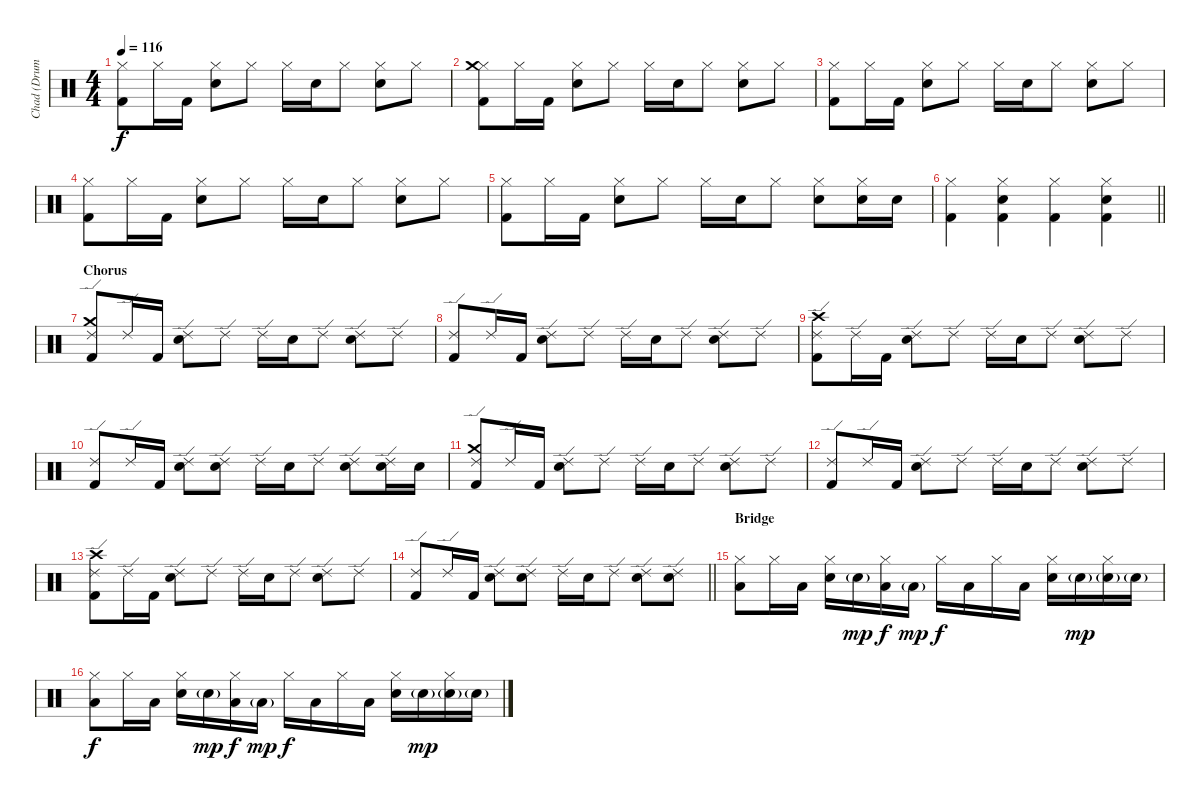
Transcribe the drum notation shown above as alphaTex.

\track ("Chad (Drums)" "Chad (Drum") {instrument percussion}
\staff {score}
\articulation defaults
\ts (4 4)
\tempo 116
\clef neutral
\ks c
("Hi-Hat (closed)" "Kick (hit) 2").8{dy f} "Hi-Hat (closed)".16 "Kick (hit) 2".16 ("Hi-Hat (closed)" "Snare (hit) 2").8 "Hi-Hat (closed)".8 "Hi-Hat (closed)".16 "Snare (hit) 2".16 "Hi-Hat (closed)".8 ("Hi-Hat (closed)" "Snare (hit) 2").8 "Hi-Hat (closed)".8 |
("Hi-Hat (closed)" "Crash medium (hit)" "Kick (hit) 2").8 "Hi-Hat (closed)".16 "Kick (hit) 2".16 ("Hi-Hat (closed)" "Snare (hit) 2").8 "Hi-Hat (closed)".8 "Hi-Hat (closed)".16 "Snare (hit) 2".16 "Hi-Hat (closed)".8 ("Hi-Hat (closed)" "Snare (hit) 2").8 "Hi-Hat (closed)".8 |
("Hi-Hat (closed)" "Kick (hit) 2").8 "Hi-Hat (closed)".16 "Kick (hit) 2".16 ("Hi-Hat (closed)" "Snare (hit) 2").8 "Hi-Hat (closed)".8 "Hi-Hat (closed)".16 "Snare (hit) 2".16 "Hi-Hat (closed)".8 ("Hi-Hat (closed)" "Snare (hit) 2").8 "Hi-Hat (closed)".8 |
("Hi-Hat (closed)" "Kick (hit) 2").8 "Hi-Hat (closed)".16 "Kick (hit) 2".16 ("Hi-Hat (closed)" "Snare (hit) 2").8 "Hi-Hat (closed)".8 "Hi-Hat (closed)".16 "Snare (hit) 2".16 "Hi-Hat (closed)".8 ("Hi-Hat (closed)" "Snare (hit) 2").8 "Hi-Hat (closed)".8 |
("Hi-Hat (closed)" "Kick (hit) 2").8 "Hi-Hat (closed)".16 "Kick (hit) 2".16 ("Hi-Hat (closed)" "Snare (hit) 2").8 "Hi-Hat (closed)".8 "Hi-Hat (closed)".16 "Snare (hit) 2".16 "Hi-Hat (closed)".8 ("Hi-Hat (closed)" "Snare (hit) 2").8 ("Hi-Hat (closed)" "Snare (hit) 2").16 "Snare (hit) 2".16 |
\barLineRight lightlight
("Hi-Hat (closed)" "Kick (hit) 2").4 ("Hi-Hat (closed)" "Snare (hit) 2" "Kick (hit) 2").4 ("Hi-Hat (closed)" "Kick (hit) 2").4 ("Hi-Hat (closed)" "Snare (hit) 2" "Kick (hit) 2").4 |
\section ("" "Chorus")
("Ride (edge) 2" "Crash medium (hit)" "Kick (hit) 2").8 "Ride (edge) 2".16 "Kick (hit) 2".16 ("Ride (edge) 2" "Snare (hit) 2").8 "Ride (edge) 2".8 "Ride (edge) 2".16 "Snare (hit) 2".16 "Ride (edge) 2".8 ("Ride (edge) 2" "Snare (hit) 2").8 "Ride (edge) 2".8 |
("Ride (edge) 2" "Kick (hit) 2").8 "Ride (edge) 2".16 "Kick (hit) 2".16 ("Ride (edge) 2" "Snare (hit) 2").8 "Ride (edge) 2".8 "Ride (edge) 2".16 "Snare (hit) 2".16 "Ride (edge) 2".8 ("Ride (edge) 2" "Snare (hit) 2").8 "Ride (edge) 2".8 |
("Ride (edge) 2" "Crash high (hit)" "Kick (hit) 2").8 "Ride (edge) 2".16 "Kick (hit) 2".16 ("Ride (edge) 2" "Snare (hit) 2").8 "Ride (edge) 2".8 "Ride (edge) 2".16 "Snare (hit) 2".16 "Ride (edge) 2".8 ("Ride (edge) 2" "Snare (hit) 2").8 "Ride (edge) 2".8 |
("Ride (edge) 2" "Kick (hit) 2").8 "Ride (edge) 2".16 "Kick (hit) 2".16 ("Ride (edge) 2" "Snare (hit) 2").8 ("Ride (edge) 2" "Snare (hit) 2").8 "Ride (edge) 2".16 "Snare (hit) 2".16 "Ride (edge) 2".8 ("Ride (edge) 2" "Snare (hit) 2").8 ("Ride (edge) 2" "Snare (hit) 2").16 "Snare (hit) 2".16 |
("Ride (edge) 2" "Crash medium (hit)" "Kick (hit) 2").8 "Ride (edge) 2".16 "Kick (hit) 2".16 ("Ride (edge) 2" "Snare (hit) 2").8 "Ride (edge) 2".8 "Ride (edge) 2".16 "Snare (hit) 2".16 "Ride (edge) 2".8 ("Ride (edge) 2" "Snare (hit) 2").8 "Ride (edge) 2".8 |
("Ride (edge) 2" "Kick (hit) 2").8 "Ride (edge) 2".16 "Kick (hit) 2".16 ("Ride (edge) 2" "Snare (hit) 2").8 "Ride (edge) 2".8 "Ride (edge) 2".16 "Snare (hit) 2".16 "Ride (edge) 2".8 ("Ride (edge) 2" "Snare (hit) 2").8 "Ride (edge) 2".8 |
("Ride (edge) 2" "Crash high (hit)" "Kick (hit) 2").8 "Ride (edge) 2".16 "Kick (hit) 2".16 ("Ride (edge) 2" "Snare (hit) 2").8 "Ride (edge) 2".8 "Ride (edge) 2".16 "Snare (hit) 2".16 "Ride (edge) 2".8 ("Ride (edge) 2" "Snare (hit) 2").8 "Ride (edge) 2".8 |
\barLineRight lightlight
("Ride (edge) 2" "Kick (hit) 2").8 "Ride (edge) 2".16 "Kick (hit) 2".16 ("Ride (edge) 2" "Snare (hit) 2").8 ("Ride (edge) 2" "Snare (hit) 2").8 "Ride (edge) 2".16 "Snare (hit) 2".16 "Ride (edge) 2".8 ("Ride (edge) 2" "Snare (hit) 2").8 ("Ride (edge) 2" "Snare (hit) 2").8 |
\section ("" "Bridge")
("Hi-Hat (closed)" "Low Floor Tom (hit)").8 "Hi-Hat (closed)".16 "Low Floor Tom (hit)".16 ("Hi-Hat (closed)" "Snare (hit) 2").16 "Snare (hit) 2"{g}.16{dy mp} ("Hi-Hat (closed)" "Low Floor Tom (hit)").16{dy f} "Low Floor Tom (hit)"{g}.16{dy mp} "Hi-Hat (closed)".16{dy f} "Low Floor Tom (hit)".16 "Hi-Hat (closed)".16 "Low Floor Tom (hit)".16 ("Hi-Hat (closed)" "Snare (hit) 2").16 "Snare (hit) 2"{g}.16{dy mp} ("Hi-Hat (closed)" "Snare (hit) 2"{g}).16 "Snare (hit) 2"{g}.16 |
("Hi-Hat (closed)" "Low Floor Tom (hit)").8{dy f} "Hi-Hat (closed)".16 "Low Floor Tom (hit)".16 ("Hi-Hat (closed)" "Snare (hit) 2").16 "Snare (hit) 2"{g}.16{dy mp} ("Hi-Hat (closed)" "Low Floor Tom (hit)").16{dy f} "Low Floor Tom (hit)"{g}.16{dy mp} "Hi-Hat (closed)".16{dy f} "Low Floor Tom (hit)".16 "Hi-Hat (closed)".16 "Low Floor Tom (hit)".16 ("Hi-Hat (closed)" "Snare (hit) 2").16 "Snare (hit) 2"{g}.16{dy mp} ("Hi-Hat (closed)" "Snare (hit) 2"{g}).16 "Snare (hit) 2"{g}.16
